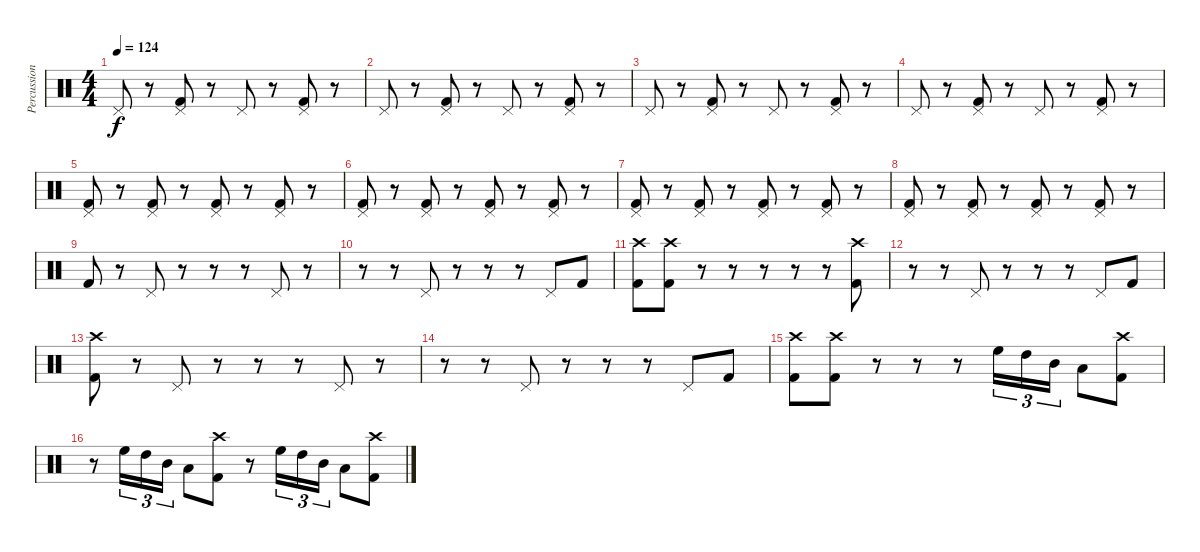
\track ("Percussion" "Percussion") {instrument percussion}
\staff {score}
\articulation defaults
\ts (4 4)
\tempo 124
\clef neutral
\ks c "Pedal Hi-Hat (hit)".8{dy f}
r.8 ("Pedal Hi-Hat (hit)" "Kick (hit) 2").8 r.8 "Pedal Hi-Hat (hit)".8 r.8 ("Pedal Hi-Hat (hit)" "Kick (hit) 2").8 r.8 |
"Pedal Hi-Hat (hit)".8 r.8 ("Pedal Hi-Hat (hit)" "Kick (hit) 2").8 r.8 "Pedal Hi-Hat (hit)".8 r.8 ("Pedal Hi-Hat (hit)" "Kick (hit) 2").8 r.8 |
"Pedal Hi-Hat (hit)".8 r.8 ("Pedal Hi-Hat (hit)" "Kick (hit) 2").8 r.8 "Pedal Hi-Hat (hit)".8 r.8 ("Pedal Hi-Hat (hit)" "Kick (hit) 2").8 r.8 |
"Pedal Hi-Hat (hit)".8 r.8 ("Pedal Hi-Hat (hit)" "Kick (hit) 2").8 r.8 "Pedal Hi-Hat (hit)".8 r.8 ("Pedal Hi-Hat (hit)" "Kick (hit) 2").8 r.8 |
("Pedal Hi-Hat (hit)" "Kick (hit) 2").8 r.8 ("Pedal Hi-Hat (hit)" "Kick (hit) 2").8 r.8 ("Pedal Hi-Hat (hit)" "Kick (hit) 2").8 r.8 ("Pedal Hi-Hat (hit)" "Kick (hit) 2").8 r.8 |
("Pedal Hi-Hat (hit)" "Kick (hit) 2").8 r.8 ("Pedal Hi-Hat (hit)" "Kick (hit) 2").8 r.8 ("Pedal Hi-Hat (hit)" "Kick (hit) 2").8 r.8 ("Pedal Hi-Hat (hit)" "Kick (hit) 2").8 r.8 |
("Pedal Hi-Hat (hit)" "Kick (hit) 2").8 r.8 ("Pedal Hi-Hat (hit)" "Kick (hit) 2").8 r.8 ("Pedal Hi-Hat (hit)" "Kick (hit) 2").8 r.8 ("Pedal Hi-Hat (hit)" "Kick (hit) 2").8 r.8 |
("Pedal Hi-Hat (hit)" "Kick (hit) 2").8 r.8 ("Pedal Hi-Hat (hit)" "Kick (hit) 2").8 r.8 ("Pedal Hi-Hat (hit)" "Kick (hit) 2").8 r.8 ("Pedal Hi-Hat (hit)" "Kick (hit) 2").8 r.8 |
"Kick (hit) 2".8 r.8 "Pedal Hi-Hat (hit)".8 r.8 r.8 r.8 "Pedal Hi-Hat (hit)".8 r.8 |
r.8 r.8 "Pedal Hi-Hat (hit)".8 r.8 r.8 r.8 "Pedal Hi-Hat (hit)".8 "Kick (hit) 2".8 |
("Crash high (hit)" "Kick (hit) 2").8 ("Crash high (hit)" "Kick (hit) 2").8 r.8 r.8 r.8 r.8 r.8 ("Crash high (hit)" "Kick (hit) 2").8 |
r.8 r.8 "Pedal Hi-Hat (hit)".8 r.8 r.8 r.8 "Pedal Hi-Hat (hit)".8 "Kick (hit) 2".8 |
("Crash high (hit)" "Kick (hit) 2").8 r.8 "Pedal Hi-Hat (hit)".8 r.8 r.8 r.8 "Pedal Hi-Hat (hit)".8 r.8 |
r.8 r.8 "Pedal Hi-Hat (hit)".8 r.8 r.8 r.8 "Pedal Hi-Hat (hit)".8 "Kick (hit) 2".8 |
("Crash high (hit)" "Kick (hit) 2").8 ("Crash high (hit)" "Kick (hit) 2").8 r.8 r.8 r.8 "High Floor Tom (hit)".16{tu (3 2)} "High Tom (hit)".16{tu (3 2)} "Mid Tom (hit)".16{tu (3 2)} "Low Tom (hit)".8 ("Crash high (hit)" "Kick (hit) 2").8 |
r.8 "High Floor Tom (hit)".16{tu (3 2)} "High Tom (hit)".16{tu (3 2)} "Mid Tom (hit)".16{tu (3 2)} "Low Tom (hit)".8 ("Crash high (hit)" "Kick (hit) 2").8 r.8 "High Floor Tom (hit)".16{tu (3 2)} "High Tom (hit)".16{tu (3 2)} "Mid Tom (hit)".16{tu (3 2)} "Low Tom (hit)".8 ("Crash high (hit)" "Kick (hit) 2").8
